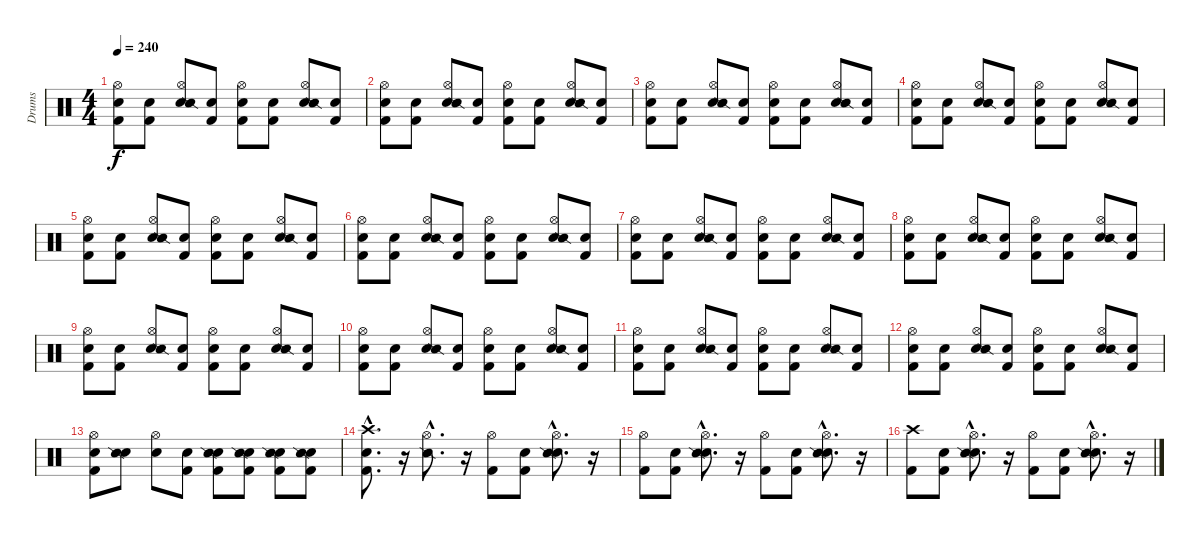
\track ("Drums" "Drums") {instrument percussion}
\staff {score}
\articulation defaults
\ts (4 4)
\tempo 240
\clef neutral
\ks c
("Snare (hit)" "Kick (hit) 2" "Hi-Hat (open)").8{dy f} ("Snare (hit)" "Kick (hit) 2").8 ("Snare (hit)" "Hi-Hat (open)" "Snare (side stick) 2").8 ("Snare (hit)" "Kick (hit) 2").8 ("Snare (hit)" "Kick (hit) 2" "Hi-Hat (open)").8 ("Snare (hit)" "Kick (hit) 2").8 ("Snare (hit)" "Hi-Hat (open)" "Snare (side stick) 2").8 ("Snare (hit)" "Kick (hit) 2").8 |
("Snare (hit)" "Kick (hit) 2" "Hi-Hat (open)").8 ("Snare (hit)" "Kick (hit) 2").8 ("Snare (hit)" "Hi-Hat (open)" "Snare (side stick) 2").8 ("Snare (hit)" "Kick (hit) 2").8 ("Snare (hit)" "Kick (hit) 2" "Hi-Hat (open)").8 ("Snare (hit)" "Kick (hit) 2").8 ("Snare (hit)" "Hi-Hat (open)" "Snare (side stick) 2").8 ("Snare (hit)" "Kick (hit) 2").8 |
("Snare (hit)" "Kick (hit) 2" "Hi-Hat (open)").8 ("Snare (hit)" "Kick (hit) 2").8 ("Snare (hit)" "Hi-Hat (open)" "Snare (side stick) 2").8 ("Snare (hit)" "Kick (hit) 2").8 ("Snare (hit)" "Kick (hit) 2" "Hi-Hat (open)").8 ("Snare (hit)" "Kick (hit) 2").8 ("Snare (hit)" "Hi-Hat (open)" "Snare (side stick) 2").8 ("Snare (hit)" "Kick (hit) 2").8 |
("Snare (hit)" "Kick (hit) 2" "Hi-Hat (open)").8 ("Snare (hit)" "Kick (hit) 2").8 ("Snare (hit)" "Hi-Hat (open)" "Snare (side stick) 2").8 ("Snare (hit)" "Kick (hit) 2").8 ("Snare (hit)" "Kick (hit) 2" "Hi-Hat (open)").8 ("Snare (hit)" "Kick (hit) 2").8 ("Snare (hit)" "Hi-Hat (open)" "Snare (side stick) 2").8 ("Snare (hit)" "Kick (hit) 2").8 |
("Snare (hit)" "Kick (hit) 2" "Hi-Hat (open)").8 ("Snare (hit)" "Kick (hit) 2").8 ("Snare (hit)" "Hi-Hat (open)" "Snare (side stick) 2").8 ("Snare (hit)" "Kick (hit) 2").8 ("Snare (hit)" "Kick (hit) 2" "Hi-Hat (open)").8 ("Snare (hit)" "Kick (hit) 2").8 ("Snare (hit)" "Hi-Hat (open)" "Snare (side stick) 2").8 ("Snare (hit)" "Kick (hit) 2").8 |
("Snare (hit)" "Kick (hit) 2" "Hi-Hat (open)").8 ("Snare (hit)" "Kick (hit) 2").8 ("Snare (hit)" "Hi-Hat (open)" "Snare (side stick) 2").8 ("Snare (hit)" "Kick (hit) 2").8 ("Snare (hit)" "Kick (hit) 2" "Hi-Hat (open)").8 ("Snare (hit)" "Kick (hit) 2").8 ("Snare (hit)" "Hi-Hat (open)" "Snare (side stick) 2").8 ("Snare (hit)" "Kick (hit) 2").8 |
("Snare (hit)" "Kick (hit) 2" "Hi-Hat (open)").8 ("Snare (hit)" "Kick (hit) 2").8 ("Snare (hit)" "Hi-Hat (open)" "Snare (side stick) 2").8 ("Snare (hit)" "Kick (hit) 2").8 ("Snare (hit)" "Kick (hit) 2" "Hi-Hat (open)").8 ("Snare (hit)" "Kick (hit) 2").8 ("Snare (hit)" "Hi-Hat (open)" "Snare (side stick) 2").8 ("Snare (hit)" "Kick (hit) 2").8 |
("Snare (hit)" "Kick (hit) 2" "Hi-Hat (open)").8 ("Snare (hit)" "Kick (hit) 2").8 ("Snare (hit)" "Hi-Hat (open)" "Snare (side stick) 2").8 ("Snare (hit)" "Kick (hit) 2").8 ("Snare (hit)" "Kick (hit) 2" "Hi-Hat (open)").8 ("Snare (hit)" "Kick (hit) 2").8 ("Snare (hit)" "Hi-Hat (open)" "Snare (side stick) 2").8 ("Snare (hit)" "Kick (hit) 2").8 |
("Snare (hit)" "Kick (hit) 2" "Hi-Hat (open)").8 ("Snare (hit)" "Kick (hit) 2").8 ("Snare (hit)" "Hi-Hat (open)" "Snare (side stick) 2").8 ("Snare (hit)" "Kick (hit) 2").8 ("Snare (hit)" "Kick (hit) 2" "Hi-Hat (open)").8 ("Snare (hit)" "Kick (hit) 2").8 ("Snare (hit)" "Hi-Hat (open)" "Snare (side stick) 2").8 ("Snare (hit)" "Kick (hit) 2").8 |
("Snare (hit)" "Kick (hit) 2" "Hi-Hat (open)").8 ("Snare (hit)" "Kick (hit) 2").8 ("Snare (hit)" "Hi-Hat (open)" "Snare (side stick) 2").8 ("Snare (hit)" "Kick (hit) 2").8 ("Snare (hit)" "Kick (hit) 2" "Hi-Hat (open)").8 ("Snare (hit)" "Kick (hit) 2").8 ("Snare (hit)" "Hi-Hat (open)" "Snare (side stick) 2").8 ("Snare (hit)" "Kick (hit) 2").8 |
("Snare (hit)" "Kick (hit) 2" "Hi-Hat (open)").8 ("Snare (hit)" "Kick (hit) 2").8 ("Snare (hit)" "Hi-Hat (open)" "Snare (side stick) 2").8 ("Snare (hit)" "Kick (hit) 2").8 ("Snare (hit)" "Kick (hit) 2" "Hi-Hat (open)").8 ("Snare (hit)" "Kick (hit) 2").8 ("Snare (hit)" "Hi-Hat (open)" "Snare (side stick) 2").8 ("Snare (hit)" "Kick (hit) 2").8 |
("Snare (hit)" "Kick (hit) 2" "Hi-Hat (open)").8 ("Snare (hit)" "Kick (hit) 2").8 ("Snare (hit)" "Hi-Hat (open)" "Snare (side stick) 2").8 ("Snare (hit)" "Kick (hit) 2").8 ("Snare (hit)" "Kick (hit) 2" "Hi-Hat (open)").8 ("Snare (hit)" "Kick (hit) 2").8 ("Snare (hit)" "Hi-Hat (open)" "Snare (side stick) 2").8 ("Snare (hit)" "Kick (hit) 2").8 |
("Snare (hit)" "Kick (hit) 2" "Hi-Hat (open)").8 ("Snare (hit)" "Snare (side stick) 2").8 ("Snare (hit)" "Hi-Hat (open)").8 ("Snare (hit)" "Kick (hit) 2").8 ("Snare (hit)" "Kick (hit) 2" "Snare (side stick) 2").8 ("Snare (hit)" "Kick (hit) 2" "Snare (side stick) 2").8 ("Snare (hit)" "Kick (hit) 2" "Snare (side stick) 2").8 ("Snare (hit)" "Kick (hit) 2" "Snare (side stick) 2").8 |
("Snare (hit)"{hac} "Kick (hit) 2"{hac} "Crash high (hit)"{hac}).8{d} r.16 ("Hi-Hat (open)"{hac} "Snare (side stick) 2"{hac}).8{d} r.16 ("Kick (hit) 2" "Hi-Hat (open)").8 ("Snare (hit)" "Kick (hit) 2").8 ("Snare (hit)"{hac} "Hi-Hat (open)"{hac} "Snare (side stick) 2"{hac}).8{d} r.16 |
("Kick (hit) 2" "Hi-Hat (open)").8 ("Snare (hit)" "Kick (hit) 2").8 ("Snare (hit)"{hac} "Hi-Hat (open)"{hac} "Snare (side stick) 2"{hac}).8{d} r.16 ("Kick (hit) 2" "Hi-Hat (open)").8 ("Snare (hit)" "Kick (hit) 2").8 ("Snare (hit)"{hac} "Hi-Hat (open)"{hac} "Snare (side stick) 2"{hac}).8{d} r.16 |
("Kick (hit) 2" "Crash high (hit)").8 ("Snare (hit)" "Kick (hit) 2").8 ("Snare (hit)"{hac} "Hi-Hat (open)"{hac} "Snare (side stick) 2"{hac}).8{d} r.16 ("Kick (hit) 2" "Hi-Hat (open)").8 ("Snare (hit)" "Kick (hit) 2").8 ("Snare (hit)"{hac} "Hi-Hat (open)"{hac} "Snare (side stick) 2"{hac}).8{d} r.16
